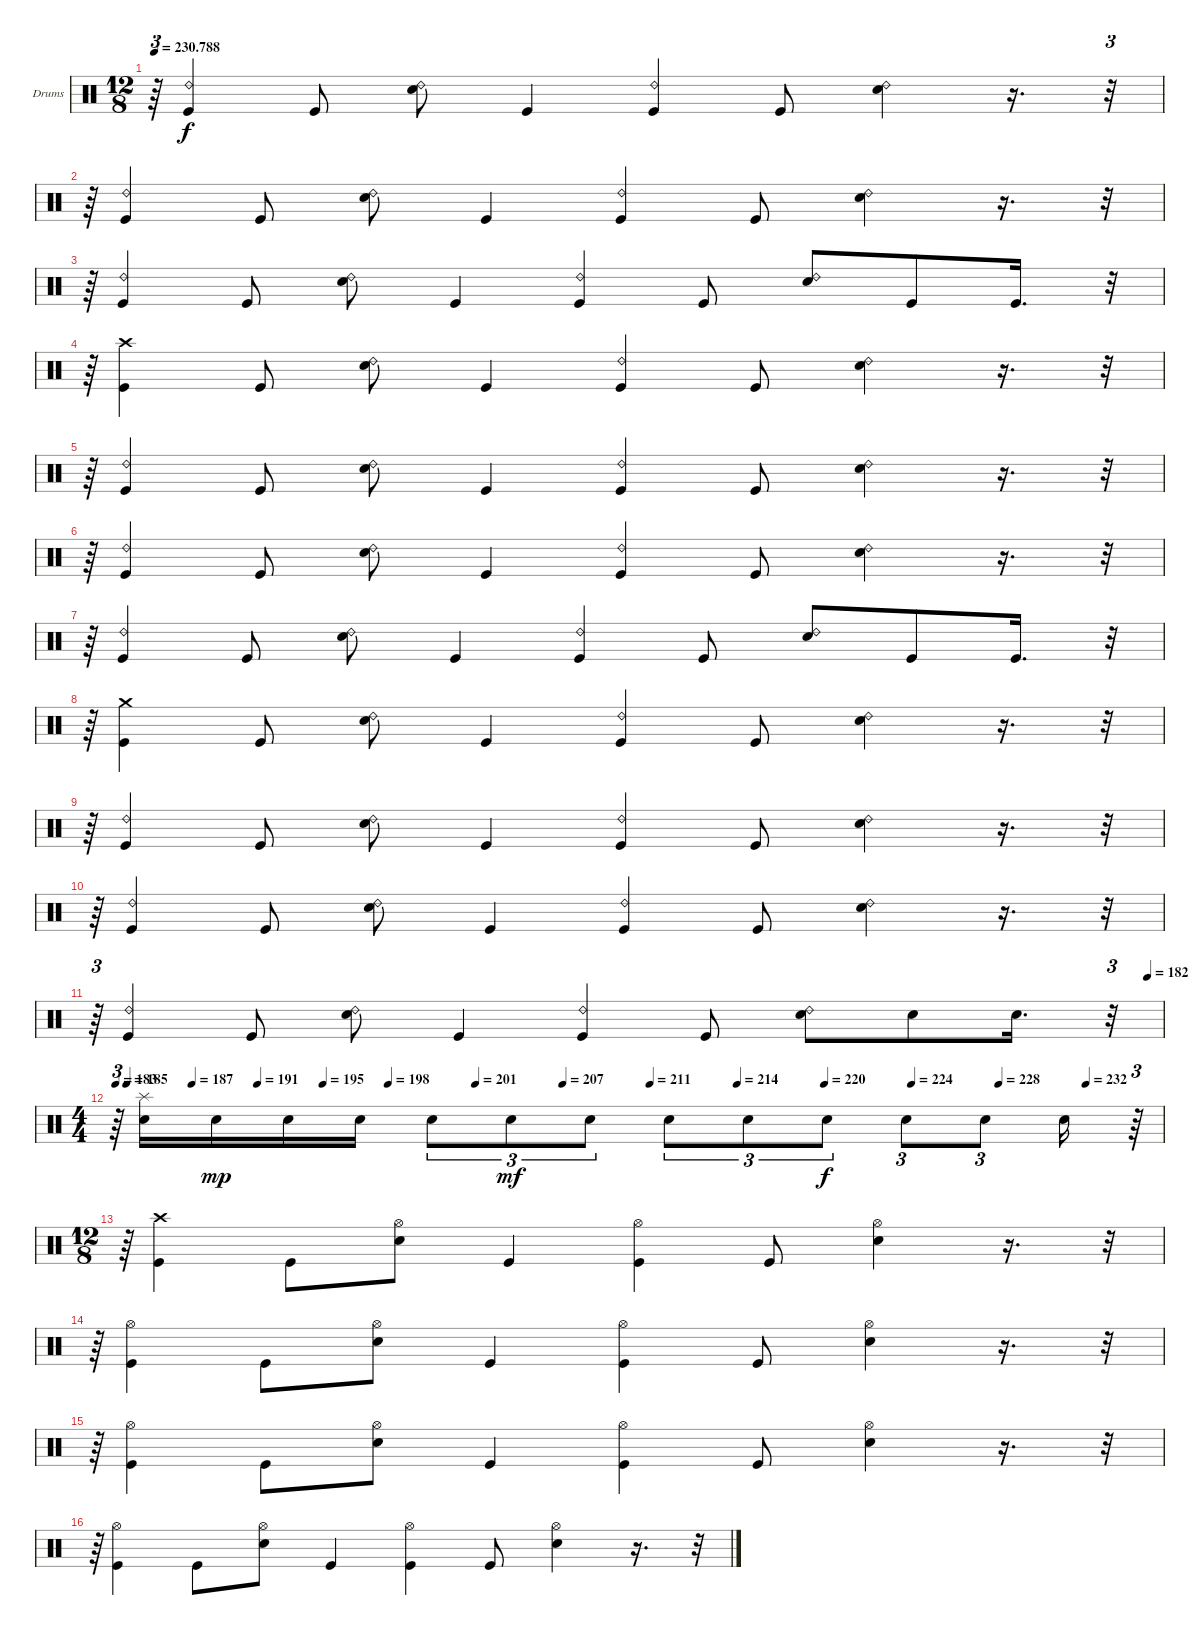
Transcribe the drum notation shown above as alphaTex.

\bracketExtendMode groupsimilarinstruments
\firstSystemTrackNameOrientation horizontal
\otherSystemsTrackNameOrientation horizontal
\track ("Ударные" "Drums") {instrument percussion}
\staff {score}
\articulation defaults
\ts (12 8)
\tempo
230.788
\accidentals auto
\clef neutral
\ottava regular
\simile none
\ks c
r.64{tu (3 2) dy f} ("Ride (bell) 2" "Kick (hit)").4 "Kick (hit)".8 ("Ride (bell) 2" "Snare (hit) 2").8 "Kick (hit)".4 ("Ride (bell) 2" "Kick (hit)").4 "Kick (hit)".8 ("Ride (bell) 2" "Snare (hit) 2").4 r.16{d} r.32{tu (3 2)} |
r.64{tu (3 2)} ("Kick (hit)" "Ride (bell) 2").4 "Kick (hit)".8 ("Ride (bell) 2" "Snare (hit) 2").8 "Kick (hit)".4 ("Kick (hit)" "Ride (bell) 2").4 "Kick (hit)".8 ("Ride (bell) 2" "Snare (hit) 2").4 r.16{d} r.32{tu (3 2)} |
r.64{tu (3 2)} ("Kick (hit)" "Ride (bell) 2").4 "Kick (hit)".8 ("Ride (bell) 2" "Snare (hit) 2").8 "Kick (hit)".4 ("Ride (bell) 2" "Kick (hit)").4 "Kick (hit)".8 ("Ride (bell) 2" "Snare (hit) 2").8 "Kick (hit)".8 "Kick (hit)".16{d} r.32{tu (3 2)} |
r.64{tu (3 2)} ("Crash high (hit)" "Kick (hit)").4 "Kick (hit)".8 ("Ride (bell) 2" "Snare (hit) 2").8 "Kick (hit)".4 ("Ride (bell) 2" "Kick (hit)").4 "Kick (hit)".8 ("Ride (bell) 2" "Snare (hit) 2").4 r.16{d} r.32{tu (3 2)} |
r.64{tu (3 2)} ("Ride (bell) 2" "Kick (hit)").4 "Kick (hit)".8 ("Ride (bell) 2" "Snare (hit) 2").8 "Kick (hit)".4 ("Ride (bell) 2" "Kick (hit)").4 "Kick (hit)".8 ("Ride (bell) 2" "Snare (hit) 2").4 r.16{d} r.32{tu (3 2)} |
r.64{tu (3 2)} ("Kick (hit)" "Ride (bell) 2").4 "Kick (hit)".8 ("Ride (bell) 2" "Snare (hit) 2").8 "Kick (hit)".4 ("Kick (hit)" "Ride (bell) 2").4 "Kick (hit)".8 ("Ride (bell) 2" "Snare (hit) 2").4 r.16{d} r.32{tu (3 2)} |
r.64{tu (3 2)} ("Kick (hit)" "Ride (bell) 2").4 "Kick (hit)".8 ("Ride (bell) 2" "Snare (hit) 2").8 "Kick (hit)".4 ("Ride (bell) 2" "Kick (hit)").4 "Kick (hit)".8 ("Ride (bell) 2" "Snare (hit) 2").8 "Kick (hit)".8 "Kick (hit)".16{d} r.32{tu (3 2)} |
r.64{tu (3 2)} ("Crash medium (hit)" "Kick (hit)").4 "Kick (hit)".8 ("Ride (bell) 2" "Snare (hit) 2").8 "Kick (hit)".4 ("Ride (bell) 2" "Kick (hit)").4 "Kick (hit)".8 ("Ride (bell) 2" "Snare (hit) 2").4 r.16{d} r.32{tu (3 2)} |
r.64{tu (3 2)} ("Ride (bell) 2" "Kick (hit)").4 "Kick (hit)".8 ("Ride (bell) 2" "Snare (hit) 2").8 "Kick (hit)".4 ("Ride (bell) 2" "Kick (hit)").4 "Kick (hit)".8 ("Ride (bell) 2" "Snare (hit) 2").4 r.16{d} r.32{tu (3 2)} |
r.64{tu (3 2)} ("Kick (hit)" "Ride (bell) 2").4 "Kick (hit)".8 ("Ride (bell) 2" "Snare (hit) 2").8 "Kick (hit)".4 ("Kick (hit)" "Ride (bell) 2").4 "Kick (hit)".8 ("Ride (bell) 2" "Snare (hit) 2").4 r.16{d} r.32{tu (3 2)} |
\tempo (182 0.986111)
r.64{tu (3 2)} ("Kick (hit)" "Ride (bell) 2").4 "Kick (hit)".8 ("Ride (bell) 2" "Snare (hit) 2").8 "Kick (hit)".4 ("Ride (bell) 2" "Kick (hit)").4 "Kick (hit)".8 ("Ride (bell) 2" "Snare (hit) 2").8 "Snare (hit) 2".8 "Snare (hit) 2".16{d} r.32{tu (3 2)} |
\ts (4 4)
\beaming (8 2 2 2 2)
\tempo 183
\tempo (185 0.0104167)
\tempo (187 0.0729167)
\tempo (191 0.135417)
\tempo (195 0.197917)
\tempo (198 0.260417)
\tempo (201 0.34375)
\tempo (207 0.427083)
\tempo (211 0.510417)
\tempo (214 0.59375)
\tempo (220 0.677083)
\tempo (224 0.760417)
\tempo (228 0.84375)
\tempo (232 0.927083)
r.64{tu (3 2)} ("Splash (hit)" "Snare (hit) 2").16 "Snare (hit) 2".16{dy mp} "Snare (hit) 2".16 "Snare (hit) 2".16 "Snare (hit) 2".8{tu (3 2)} "Snare (hit) 2".8{tu (3 2) dy mf} "Snare (hit) 2".8{tu (3 2)} "Snare (hit) 2".8{tu (3 2)} "Snare (hit) 2".8{tu (3 2)} "Snare (hit) 2".8{tu (3 2) dy f} "Snare (hit) 2".8{tu (3 2)} "Snare (hit) 2".8{tu (3 2)} "Snare (hit) 2".16 r.64{tu (3 2)} |
\ts (12 8)
\beaming (8 2 2 2 6)
r.64{tu (3 2)} ("Kick (hit)" "Crash high (hit)").4 "Kick (hit)".8 ("Snare (hit) 2" "Hi-Hat (open)").8 "Kick (hit)".4 ("Kick (hit)" "Hi-Hat (open)").4 "Kick (hit)".8 ("Snare (hit) 2" "Hi-Hat (open)").4 r.16{d} r.32{tu (3 2)} |
r.64{tu (3 2)} ("Hi-Hat (open)" "Kick (hit)").4 "Kick (hit)".8 ("Hi-Hat (open)" "Snare (hit) 2").8 "Kick (hit)".4 ("Hi-Hat (open)" "Kick (hit)").4 "Kick (hit)".8 ("Hi-Hat (open)" "Snare (hit) 2").4 r.16{d} r.32{tu (3 2)} |
r.64{tu (3 2)} ("Hi-Hat (open)" "Kick (hit)").4 "Kick (hit)".8 ("Hi-Hat (open)" "Snare (hit) 2").8 "Kick (hit)".4 ("Hi-Hat (open)" "Kick (hit)").4 "Kick (hit)".8 ("Hi-Hat (open)" "Snare (hit) 2").4 r.16{d} r.32{tu (3 2)} |
r.64{tu (3 2)} ("Hi-Hat (open)" "Kick (hit)").4 "Kick (hit)".8 ("Hi-Hat (open)" "Snare (hit) 2").8 "Kick (hit)".4 ("Hi-Hat (open)" "Kick (hit)").4 "Kick (hit)".8 ("Hi-Hat (open)" "Snare (hit) 2").4 r.16{d} r.32{tu (3 2)}
